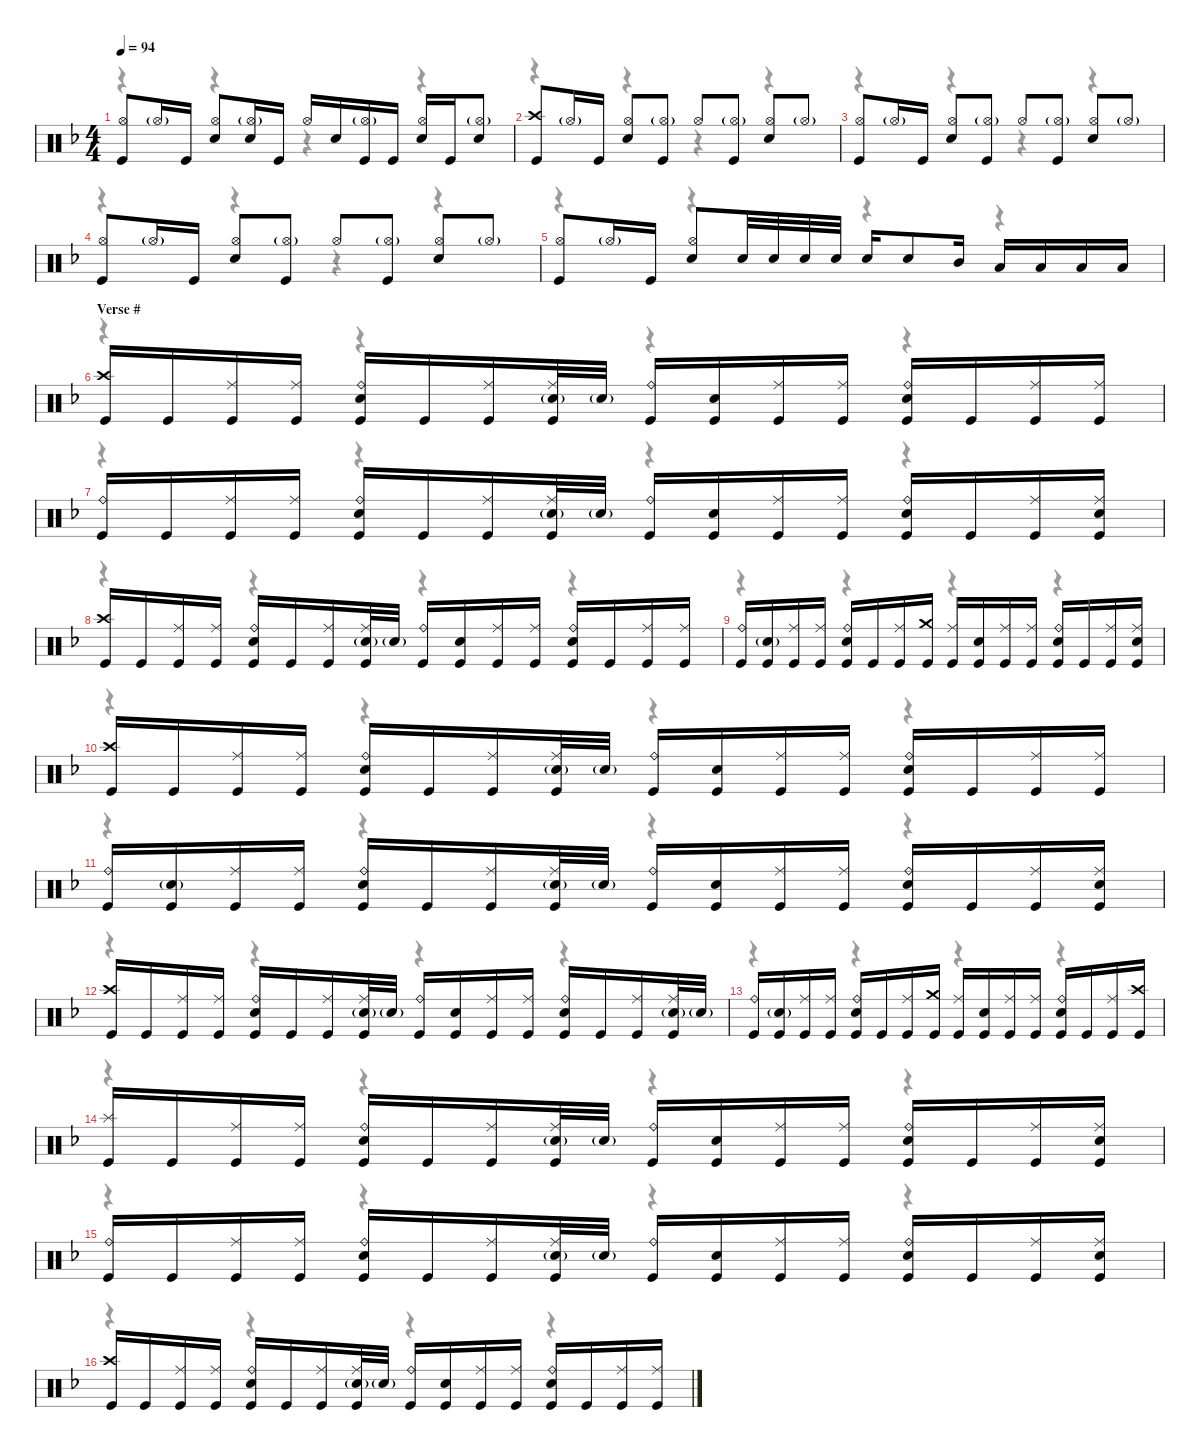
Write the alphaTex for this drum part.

\defaultSystemsLayout 4
\hideDynamics
\bracketExtendMode nobrackets
\singleTrackTrackNamePolicy hidden
\multiTrackTrackNamePolicy hidden
\otherSystemsTrackNameOrientation horizontal
\track ("M. Lopez" "drm.") {instrument percussion}
\staff {score}
\articulation defaults
\voice
\ts (4 4)
\tempo 94
\clef neutral
\ks dminor
("Hi-Hat (open)"{acc forcenatural} "Kick (hit)"{acc forcenatural}).8{dy f beam Up} "Hi-Hat (open)"{g acc forcenatural}.16{dy ff beam Up} "Kick (hit)"{acc forcenatural}.16{dy f beam Up} ("Hi-Hat (open)"{acc forcenatural} "Snare (hit) 2"{acc forcenatural}).8{beam Up} ("Hi-Hat (open)"{g acc forcenatural} "Snare (hit) 2"{acc forcenatural}).16{beam Up} "Kick (hit)"{acc forcenatural}.16{beam Up} "Hi-Hat (open)"{acc forcenatural}.16{beam Up} "Snare (hit) 2"{acc forcenatural}.16{beam Up} ("Hi-Hat (open)"{g acc forcenatural} "Kick (hit)"{acc forcenatural}).16{beam Up} "Kick (hit)"{acc forcenatural}.16{beam Up} ("Hi-Hat (open)"{acc forcenatural} "Snare (hit) 2"{acc forcenatural}).16{beam Up} "Kick (hit)"{acc forcenatural}.16{beam Up} ("Hi-Hat (open)"{g acc forcenatural} "Snare (hit) 2"{acc forcenatural}).8{beam Up} |
("Crash high (hit)"{acc forcenatural} "Kick (hit)"{acc forcenatural}).8{dy mf beam Up} "Hi-Hat (open)"{g acc forcenatural}.16{dy ff beam Up} "Kick (hit)"{acc forcenatural}.16{dy f beam Up} ("Hi-Hat (open)"{acc forcenatural} "Snare (hit) 2"{acc forcenatural}).8{beam Up} ("Hi-Hat (open)"{g acc forcenatural} "Kick (hit)"{acc forcenatural}).8{beam Up} "Hi-Hat (open)"{acc forcenatural}.8{beam Up} ("Hi-Hat (open)"{g acc forcenatural} "Kick (hit)"{acc forcenatural}).8{beam Up} ("Hi-Hat (open)"{acc forcenatural} "Snare (hit) 2"{acc forcenatural}).8{beam Up} "Hi-Hat (open)"{g acc forcenatural}.8{dy ff beam Up} |
("Hi-Hat (open)"{acc forcenatural} "Kick (hit)"{acc forcenatural}).8{dy f beam Up} "Hi-Hat (open)"{g acc forcenatural}.16{dy ff beam Up} "Kick (hit)"{acc forcenatural}.16{dy f beam Up} ("Hi-Hat (open)"{acc forcenatural} "Snare (hit) 2"{acc forcenatural}).8{beam Up} ("Hi-Hat (open)"{g acc forcenatural} "Kick (hit)"{acc forcenatural}).8{beam Up} "Hi-Hat (open)"{acc forcenatural}.8{beam Up} ("Hi-Hat (open)"{g acc forcenatural} "Kick (hit)"{acc forcenatural}).8{beam Up} ("Hi-Hat (open)"{acc forcenatural} "Snare (hit) 2"{acc forcenatural}).8{beam Up} "Hi-Hat (open)"{g acc forcenatural}.8{dy ff beam Up} |
("Hi-Hat (open)"{acc forcenatural} "Kick (hit)"{acc forcenatural}).8{dy f beam Up} "Hi-Hat (open)"{g acc forcenatural}.16{dy ff beam Up} "Kick (hit)"{acc forcenatural}.16{dy f beam Up} ("Hi-Hat (open)"{acc forcenatural} "Snare (hit) 2"{acc forcenatural}).8{beam Up} ("Hi-Hat (open)"{g acc forcenatural} "Kick (hit)"{acc forcenatural}).8{beam Up} "Hi-Hat (open)"{acc forcenatural}.8{beam Up} ("Hi-Hat (open)"{g acc forcenatural} "Kick (hit)"{acc forcenatural}).8{beam Up} ("Hi-Hat (open)"{acc forcenatural} "Snare (hit) 2"{acc forcenatural}).8{beam Up} "Hi-Hat (open)"{g acc forcenatural}.8{dy ff beam Up} |
("Hi-Hat (open)"{acc forcenatural} "Kick (hit)"{acc forcenatural}).8{dy f beam Up} "Hi-Hat (open)"{g acc forcenatural}.16{dy ff beam Up} "Kick (hit)"{acc forcenatural}.16{dy f beam Up} ("Hi-Hat (open)"{acc forcenatural} "Snare (hit) 2"{acc forcenatural}).8{beam Up} "Snare (hit) 2"{acc forcenatural}.32{dy mf beam Up} "Snare (hit) 2"{acc forcenatural}.32{beam Up} "Snare (hit) 2"{acc forcenatural}.32{beam Up} "Snare (hit) 2"{acc forcenatural}.32{beam Up} "Snare (hit) 2"{acc forcenatural}.16{dy f beam Up} "Snare (hit) 2"{acc forcenatural}.8{beam Up} "Mid Tom (hit)"{acc forcenatural}.16{dy mf beam Up} "Low Tom (hit)"{acc forcenatural}.16{beam Up} "Low Tom (hit)"{acc forcenatural}.16{beam Up} "Low Floor Tom (hit)"{acc forcenatural}.16{beam Up} "Low Floor Tom (hit)"{acc forcenatural}.16{beam Up} |
\section ("" "Verse #")
("Crash high (hit)"{acc forcenatural} "Kick (hit)"{acc forcenatural}).16{dy f beam Up} "Kick (hit)"{acc forcenatural}.16{beam Up} ("Ride (middle)"{acc forcenatural} "Kick (hit)"{acc forcenatural}).16{beam Up} ("Ride (middle)"{acc forcenatural} "Kick (hit)"{acc forcenatural}).16{beam Up} ("Ride (bell)"{acc forcenatural} "Snare (hit) 2"{acc forcenatural} "Kick (hit)"{acc forcenatural}).16{beam Up} "Kick (hit)"{acc forcenatural}.16{beam Up} ("Ride (middle)"{acc forcenatural} "Kick (hit)"{acc forcenatural}).16{beam Up} ("Ride (middle)"{acc forcenatural} "Snare (hit) 2"{g acc forcenatural} "Kick (hit)"{acc forcenatural}).32{beam Up} "Snare (hit) 2"{g acc forcenatural}.32{dy mf beam Up} ("Ride (bell)"{acc forcenatural} "Kick (hit)"{acc forcenatural}).16{dy f beam Up} ("Snare (hit) 2"{acc forcenatural} "Kick (hit)"{acc forcenatural}).16{beam Up} ("Ride (middle)"{acc forcenatural} "Kick (hit)"{acc forcenatural}).16{beam Up} ("Ride (middle)"{acc forcenatural} "Kick (hit)"{acc forcenatural}).16{beam Up} ("Ride (bell)"{acc forcenatural} "Snare (hit) 2"{acc forcenatural} "Kick (hit)"{acc forcenatural}).16{beam Up} "Kick (hit)"{acc forcenatural}.16{beam Up} ("Ride (middle)"{acc forcenatural} "Kick (hit)"{acc forcenatural}).16{beam Up} ("Ride (middle)"{acc forcenatural} "Kick (hit)"{acc forcenatural}).16{beam Up} |
("Ride (bell)"{acc forcenatural} "Kick (hit)"{acc forcenatural}).16{beam Up} "Kick (hit)"{acc forcenatural}.16{beam Up} ("Ride (middle)"{acc forcenatural} "Kick (hit)"{acc forcenatural}).16{beam Up} ("Ride (middle)"{acc forcenatural} "Kick (hit)"{acc forcenatural}).16{beam Up} ("Ride (bell)"{acc forcenatural} "Snare (hit) 2"{acc forcenatural} "Kick (hit)"{acc forcenatural}).16{beam Up} "Kick (hit)"{acc forcenatural}.16{beam Up} ("Ride (middle)"{acc forcenatural} "Kick (hit)"{acc forcenatural}).16{beam Up} ("Ride (middle)"{acc forcenatural} "Snare (hit) 2"{g acc forcenatural} "Kick (hit)"{acc forcenatural}).32{beam Up} "Snare (hit) 2"{g acc forcenatural}.32{dy mf beam Up} ("Ride (bell)"{acc forcenatural} "Kick (hit)"{acc forcenatural}).16{dy f beam Up} ("Snare (hit) 2"{acc forcenatural} "Kick (hit)"{acc forcenatural}).16{beam Up} ("Ride (middle)"{acc forcenatural} "Kick (hit)"{acc forcenatural}).16{beam Up} ("Ride (middle)"{acc forcenatural} "Kick (hit)"{acc forcenatural}).16{beam Up} ("Ride (bell)"{acc forcenatural} "Snare (hit) 2"{acc forcenatural} "Kick (hit)"{acc forcenatural}).16{beam Up} "Kick (hit)"{acc forcenatural}.16{beam Up} ("Ride (middle)"{acc forcenatural} "Kick (hit)"{acc forcenatural}).16{beam Up} ("Ride (middle)"{acc forcenatural} "Snare (hit) 2"{acc forcenatural} "Kick (hit)"{acc forcenatural}).16{beam Up} |
("Crash high (hit)"{acc forcenatural} "Kick (hit)"{acc forcenatural}).16{beam Up} "Kick (hit)"{acc forcenatural}.16{beam Up} ("Ride (middle)"{acc forcenatural} "Kick (hit)"{acc forcenatural}).16{beam Up} ("Ride (middle)"{acc forcenatural} "Kick (hit)"{acc forcenatural}).16{beam Up} ("Ride (bell)"{acc forcenatural} "Snare (hit) 2"{acc forcenatural} "Kick (hit)"{acc forcenatural}).16{beam Up} "Kick (hit)"{acc forcenatural}.16{beam Up} ("Ride (middle)"{acc forcenatural} "Kick (hit)"{acc forcenatural}).16{beam Up} ("Ride (middle)"{acc forcenatural} "Snare (hit) 2"{g acc forcenatural} "Kick (hit)"{acc forcenatural}).32{beam Up} "Snare (hit) 2"{g acc forcenatural}.32{dy mf beam Up} ("Ride (bell)"{acc forcenatural} "Kick (hit)"{acc forcenatural}).16{dy f beam Up} ("Snare (hit) 2"{acc forcenatural} "Kick (hit)"{acc forcenatural}).16{beam Up} ("Ride (middle)"{acc forcenatural} "Kick (hit)"{acc forcenatural}).16{beam Up} ("Ride (middle)"{acc forcenatural} "Kick (hit)"{acc forcenatural}).16{beam Up} ("Ride (bell)"{acc forcenatural} "Snare (hit) 2"{acc forcenatural} "Kick (hit)"{acc forcenatural}).16{beam Up} "Kick (hit)"{acc forcenatural}.16{beam Up} ("Ride (middle)"{acc forcenatural} "Kick (hit)"{acc forcenatural}).16{beam Up} ("Ride (middle)"{acc forcenatural} "Kick (hit)"{acc forcenatural}).16{beam Up} |
("Ride (bell)"{acc forcenatural} "Kick (hit)"{acc forcenatural}).16{beam Up} ("Snare (hit) 2"{g acc forcenatural} "Kick (hit)"{acc forcenatural}).16{beam Up} ("Ride (middle)"{acc forcenatural} "Kick (hit)"{acc forcenatural}).16{beam Up} ("Ride (middle)"{acc forcenatural} "Kick (hit)"{acc forcenatural}).16{beam Up} ("Ride (bell)"{acc forcenatural} "Snare (hit) 2"{acc forcenatural} "Kick (hit)"{acc forcenatural}).16{beam Up} "Kick (hit)"{acc forcenatural}.16{beam Up} ("Ride (middle)"{acc forcenatural} "Kick (hit)"{acc forcenatural}).16{beam Up} ("Crash medium (hit)"{acc forcenatural} "Kick (hit)"{acc forcenatural}).16{beam Up} ("Ride (middle)"{acc forcenatural} "Kick (hit)"{acc forcenatural}).16{beam Up} ("Snare (hit) 2"{acc forcenatural} "Kick (hit)"{acc forcenatural}).16{beam Up} ("Ride (middle)"{acc forcenatural} "Kick (hit)"{acc forcenatural}).16{beam Up} ("Ride (middle)"{acc forcenatural} "Kick (hit)"{acc forcenatural}).16{beam Up} ("Ride (bell)"{acc forcenatural} "Snare (hit) 2"{acc forcenatural} "Kick (hit)"{acc forcenatural}).16{beam Up} "Kick (hit)"{acc forcenatural}.16{beam Up} ("Ride (middle)"{acc forcenatural} "Kick (hit)"{acc forcenatural}).16{beam Up} ("Ride (middle)"{acc forcenatural} "Snare (hit) 2"{acc forcenatural} "Kick (hit)"{acc forcenatural}).16{beam Up} |
("Crash high (hit)"{acc forcenatural} "Kick (hit)"{acc forcenatural}).16{beam Up} "Kick (hit)"{acc forcenatural}.16{beam Up} ("Ride (middle)"{acc forcenatural} "Kick (hit)"{acc forcenatural}).16{beam Up} ("Ride (middle)"{acc forcenatural} "Kick (hit)"{acc forcenatural}).16{beam Up} ("Ride (bell)"{acc forcenatural} "Snare (hit) 2"{acc forcenatural} "Kick (hit)"{acc forcenatural}).16{beam Up} "Kick (hit)"{acc forcenatural}.16{beam Up} ("Ride (middle)"{acc forcenatural} "Kick (hit)"{acc forcenatural}).16{beam Up} ("Ride (middle)"{acc forcenatural} "Snare (hit) 2"{g acc forcenatural} "Kick (hit)"{acc forcenatural}).32{beam Up} "Snare (hit) 2"{g acc forcenatural}.32{dy mf beam Up} ("Ride (bell)"{acc forcenatural} "Kick (hit)"{acc forcenatural}).16{dy f beam Up} ("Snare (hit) 2"{acc forcenatural} "Kick (hit)"{acc forcenatural}).16{beam Up} ("Ride (middle)"{acc forcenatural} "Kick (hit)"{acc forcenatural}).16{beam Up} ("Ride (middle)"{acc forcenatural} "Kick (hit)"{acc forcenatural}).16{beam Up} ("Ride (bell)"{acc forcenatural} "Snare (hit) 2"{acc forcenatural} "Kick (hit)"{acc forcenatural}).16{beam Up} "Kick (hit)"{acc forcenatural}.16{beam Up} ("Ride (middle)"{acc forcenatural} "Kick (hit)"{acc forcenatural}).16{beam Up} ("Ride (middle)"{acc forcenatural} "Kick (hit)"{acc forcenatural}).16{beam Up} |
("Ride (bell)"{acc forcenatural} "Kick (hit)"{acc forcenatural}).16{beam Up} ("Snare (hit) 2"{g acc forcenatural} "Kick (hit)"{acc forcenatural}).16{beam Up} ("Ride (middle)"{acc forcenatural} "Kick (hit)"{acc forcenatural}).16{beam Up} ("Ride (middle)"{acc forcenatural} "Kick (hit)"{acc forcenatural}).16{beam Up} ("Ride (bell)"{acc forcenatural} "Snare (hit) 2"{acc forcenatural} "Kick (hit)"{acc forcenatural}).16{beam Up} "Kick (hit)"{acc forcenatural}.16{beam Up} ("Ride (middle)"{acc forcenatural} "Kick (hit)"{acc forcenatural}).16{beam Up} ("Ride (middle)"{acc forcenatural} "Snare (hit) 2"{g acc forcenatural} "Kick (hit)"{acc forcenatural}).32{beam Up} "Snare (hit) 2"{g acc forcenatural}.32{dy mf beam Up} ("Ride (bell)"{acc forcenatural} "Kick (hit)"{acc forcenatural}).16{dy f beam Up} ("Snare (hit) 2"{acc forcenatural} "Kick (hit)"{acc forcenatural}).16{beam Up} ("Ride (middle)"{acc forcenatural} "Kick (hit)"{acc forcenatural}).16{beam Up} ("Ride (middle)"{acc forcenatural} "Kick (hit)"{acc forcenatural}).16{beam Up} ("Ride (bell)"{acc forcenatural} "Snare (hit) 2"{acc forcenatural} "Kick (hit)"{acc forcenatural}).16{beam Up} "Kick (hit)"{acc forcenatural}.16{beam Up} ("Ride (middle)"{acc forcenatural} "Kick (hit)"{acc forcenatural}).16{beam Up} ("Ride (middle)"{acc forcenatural} "Snare (hit) 2"{acc forcenatural} "Kick (hit)"{acc forcenatural}).16{beam Up} |
("Crash high (hit)"{acc forcenatural} "Kick (hit)"{acc forcenatural}).16{beam Up} "Kick (hit)"{acc forcenatural}.16{beam Up} ("Ride (middle)"{acc forcenatural} "Kick (hit)"{acc forcenatural}).16{beam Up} ("Ride (middle)"{acc forcenatural} "Kick (hit)"{acc forcenatural}).16{beam Up} ("Ride (bell)"{acc forcenatural} "Snare (hit) 2"{acc forcenatural} "Kick (hit)"{acc forcenatural}).16{beam Up} "Kick (hit)"{acc forcenatural}.16{beam Up} ("Ride (middle)"{acc forcenatural} "Kick (hit)"{acc forcenatural}).16{beam Up} ("Ride (middle)"{acc forcenatural} "Snare (hit) 2"{g acc forcenatural} "Kick (hit)"{acc forcenatural}).32{beam Up} "Snare (hit) 2"{g acc forcenatural}.32{dy mf beam Up} ("Ride (bell)"{acc forcenatural} "Kick (hit)"{acc forcenatural}).16{dy f beam Up} ("Snare (hit) 2"{acc forcenatural} "Kick (hit)"{acc forcenatural}).16{beam Up} ("Ride (middle)"{acc forcenatural} "Kick (hit)"{acc forcenatural}).16{beam Up} ("Ride (middle)"{acc forcenatural} "Kick (hit)"{acc forcenatural}).16{beam Up} ("Ride (bell)"{acc forcenatural} "Snare (hit) 2"{acc forcenatural} "Kick (hit)"{acc forcenatural}).16{beam Up} "Kick (hit)"{acc forcenatural}.16{beam Up} ("Ride (middle)"{acc forcenatural} "Kick (hit)"{acc forcenatural}).16{beam Up} ("Ride (middle)"{acc forcenatural} "Snare (hit) 2"{g acc forcenatural} "Kick (hit)"{acc forcenatural}).32{beam Up} "Snare (hit) 2"{g acc forcenatural}.32{dy mf beam Up} |
("Ride (bell)"{acc forcenatural} "Kick (hit)"{acc forcenatural}).16{dy f beam Up} ("Snare (hit) 2"{g acc forcenatural} "Kick (hit)"{acc forcenatural}).16{beam Up} ("Ride (middle)"{acc forcenatural} "Kick (hit)"{acc forcenatural}).16{beam Up} ("Ride (middle)"{acc forcenatural} "Kick (hit)"{acc forcenatural}).16{beam Up} ("Ride (bell)"{acc forcenatural} "Snare (hit) 2"{acc forcenatural} "Kick (hit)"{acc forcenatural}).16{beam Up} "Kick (hit)"{acc forcenatural}.16{beam Up} ("Ride (middle)"{acc forcenatural} "Kick (hit)"{acc forcenatural}).16{beam Up} ("Crash medium (hit)"{acc forcenatural} "Kick (hit)"{acc forcenatural}).16{beam Up} ("Ride (middle)"{acc forcenatural} "Kick (hit)"{acc forcenatural}).16{beam Up} ("Snare (hit) 2"{acc forcenatural} "Kick (hit)"{acc forcenatural}).16{beam Up} ("Ride (middle)"{acc forcenatural} "Kick (hit)"{acc forcenatural}).16{beam Up} ("Ride (middle)"{acc forcenatural} "Kick (hit)"{acc forcenatural}).16{beam Up} ("Ride (bell)"{acc forcenatural} "Snare (hit) 2"{acc forcenatural} "Kick (hit)"{acc forcenatural}).16{beam Up} "Kick (hit)"{acc forcenatural}.16{beam Up} ("Ride (middle)"{acc forcenatural} "Kick (hit)"{acc forcenatural}).16{beam Up} ("Crash high (hit)"{acc forcenatural} "Kick (hit)"{acc forcenatural}).16{beam Up} |
("Splash (hit)"{acc forcenatural} "Kick (hit)"{acc forcenatural}).16{beam Up} "Kick (hit)"{acc forcenatural}.16{beam Up} ("Ride (middle)"{acc forcenatural} "Kick (hit)"{acc forcenatural}).16{beam Up} ("Ride (middle)"{acc forcenatural} "Kick (hit)"{acc forcenatural}).16{beam Up} ("Ride (bell)"{acc forcenatural} "Snare (hit) 2"{acc forcenatural} "Kick (hit)"{acc forcenatural}).16{beam Up} "Kick (hit)"{acc forcenatural}.16{beam Up} ("Ride (middle)"{acc forcenatural} "Kick (hit)"{acc forcenatural}).16{beam Up} ("Ride (middle)"{acc forcenatural} "Snare (hit) 2"{g acc forcenatural} "Kick (hit)"{acc forcenatural}).32{beam Up} "Snare (hit) 2"{g acc forcenatural}.32{dy mf beam Up} ("Ride (bell)"{acc forcenatural} "Kick (hit)"{acc forcenatural}).16{dy f beam Up} ("Snare (hit) 2"{acc forcenatural} "Kick (hit)"{acc forcenatural}).16{beam Up} ("Ride (middle)"{acc forcenatural} "Kick (hit)"{acc forcenatural}).16{beam Up} ("Ride (middle)"{acc forcenatural} "Kick (hit)"{acc forcenatural}).16{beam Up} ("Ride (bell)"{acc forcenatural} "Snare (hit) 2"{acc forcenatural} "Kick (hit)"{acc forcenatural}).16{beam Up} "Kick (hit)"{acc forcenatural}.16{beam Up} ("Ride (middle)"{acc forcenatural} "Kick (hit)"{acc forcenatural}).16{beam Up} ("Ride (middle)"{acc forcenatural} "Snare (hit) 2"{acc forcenatural} "Kick (hit)"{acc forcenatural}).16{beam Up} |
("Ride (bell)"{acc forcenatural} "Kick (hit)"{acc forcenatural}).16{beam Up} "Kick (hit)"{acc forcenatural}.16{beam Up} ("Ride (middle)"{acc forcenatural} "Kick (hit)"{acc forcenatural}).16{beam Up} ("Ride (middle)"{acc forcenatural} "Kick (hit)"{acc forcenatural}).16{beam Up} ("Ride (bell)"{acc forcenatural} "Snare (hit) 2"{acc forcenatural} "Kick (hit)"{acc forcenatural}).16{beam Up} "Kick (hit)"{acc forcenatural}.16{beam Up} ("Ride (middle)"{acc forcenatural} "Kick (hit)"{acc forcenatural}).16{beam Up} ("Ride (middle)"{acc forcenatural} "Snare (hit) 2"{g acc forcenatural} "Kick (hit)"{acc forcenatural}).32{beam Up} "Snare (hit) 2"{g acc forcenatural}.32{dy mf beam Up} ("Ride (bell)"{acc forcenatural} "Kick (hit)"{acc forcenatural}).16{dy f beam Up} ("Snare (hit) 2"{acc forcenatural} "Kick (hit)"{acc forcenatural}).16{beam Up} ("Ride (middle)"{acc forcenatural} "Kick (hit)"{acc forcenatural}).16{beam Up} ("Ride (middle)"{acc forcenatural} "Kick (hit)"{acc forcenatural}).16{beam Up} ("Ride (bell)"{acc forcenatural} "Snare (hit) 2"{acc forcenatural} "Kick (hit)"{acc forcenatural}).16{beam Up} "Kick (hit)"{acc forcenatural}.16{beam Up} ("Ride (middle)"{acc forcenatural} "Kick (hit)"{acc forcenatural}).16{beam Up} ("Ride (middle)"{acc forcenatural} "Snare (hit) 2"{acc forcenatural} "Kick (hit)"{acc forcenatural}).16{beam Up} |
("Crash high (hit)"{acc forcenatural} "Kick (hit)"{acc forcenatural}).16{beam Up} "Kick (hit)"{acc forcenatural}.16{beam Up} ("Ride (middle)"{acc forcenatural} "Kick (hit)"{acc forcenatural}).16{beam Up} ("Ride (middle)"{acc forcenatural} "Kick (hit)"{acc forcenatural}).16{beam Up} ("Ride (bell)"{acc forcenatural} "Snare (hit) 2"{acc forcenatural} "Kick (hit)"{acc forcenatural}).16{beam Up} "Kick (hit)"{acc forcenatural}.16{beam Up} ("Ride (middle)"{acc forcenatural} "Kick (hit)"{acc forcenatural}).16{beam Up} ("Ride (middle)"{acc forcenatural} "Snare (hit) 2"{g acc forcenatural} "Kick (hit)"{acc forcenatural}).32{beam Up} "Snare (hit) 2"{g acc forcenatural}.32{dy mf beam Up} ("Ride (bell)"{acc forcenatural} "Kick (hit)"{acc forcenatural}).16{dy f beam Up} ("Snare (hit) 2"{acc forcenatural} "Kick (hit)"{acc forcenatural}).16{beam Up} ("Ride (middle)"{acc forcenatural} "Kick (hit)"{acc forcenatural}).16{beam Up} ("Ride (middle)"{acc forcenatural} "Kick (hit)"{acc forcenatural}).16{beam Up} ("Ride (bell)"{acc forcenatural} "Snare (hit) 2"{acc forcenatural} "Kick (hit)"{acc forcenatural}).16{beam Up} "Kick (hit)"{acc forcenatural}.16{beam Up} ("Ride (middle)"{acc forcenatural} "Kick (hit)"{acc forcenatural}).16{beam Up} ("Ride (middle)"{acc forcenatural} "Kick (hit)"{acc forcenatural}).16{beam Up}
\voice
\clef neutral
\ottava regular
\simile none
\ks dminor
r.4{dy mf beam Down} r.4{beam Down} r.4{beam Down} r.4{beam Down} |
r.4{beam Down} r.4{beam Down} r.4{beam Down} r.4{beam Down} |
r.4{beam Down} r.4{beam Down} r.4{beam Down} r.4{beam Down} |
r.4{beam Down} r.4{beam Down} r.4{beam Down} r.4{beam Down} |
r.4{beam Down} r.4{beam Down} r.4{beam Down} r.4{beam Down} |
r.4{beam Down} r.4{beam Down} r.4{beam Down} r.4{beam Down} |
r.4{beam Down} r.4{beam Down} r.4{beam Down} r.4{beam Down} |
r.4{beam Down} r.4{beam Down} r.4{beam Down} r.4{beam Down} |
r.4{beam Down} r.4{beam Down} r.4{beam Down} r.4{beam Down} |
r.4{beam Down} r.4{beam Down} r.4{beam Down} r.4{beam Down} |
r.4{beam Down} r.4{beam Down} r.4{beam Down} r.4{beam Down} |
r.4{beam Down} r.4{beam Down} r.4{beam Down} r.4{beam Down} |
r.4{beam Down} r.4{beam Down} r.4{beam Down} r.4{beam Down} |
r.4{beam Down} r.4{beam Down} r.4{beam Down} r.4{beam Down} |
r.4{beam Down} r.4{beam Down} r.4{beam Down} r.4{beam Down} |
r.4{beam Down} r.4{beam Down} r.4{beam Down} r.4{beam Down}
